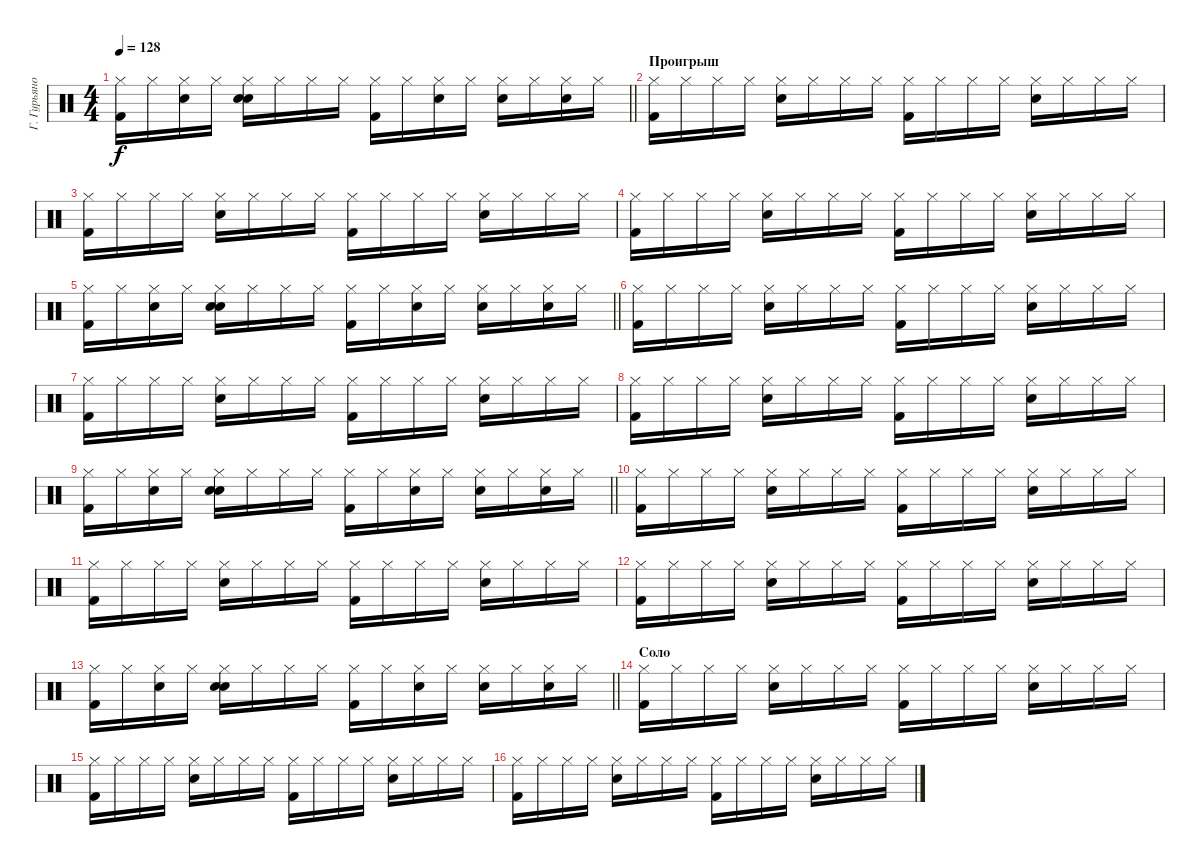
\track ("Г. Гурьянов" "Г. Гурьяно") {instrument percussion}
\staff
\articulation defaults
\ts (4 4)
\tempo 128
\clef neutral
\barLineRight lightlight
\ks c
("Hi-Hat (closed)" "Kick (hit) 2").16{dy f} "Hi-Hat (closed)".16 ("Hi-Hat (closed)" "Hand Clap (hit)").16 "Hi-Hat (closed)".16 ("Hi-Hat (closed)" "Snare (hit) 2" "Hand Clap (hit)").16 "Hi-Hat (closed)".16 "Hi-Hat (closed)".16 "Hi-Hat (closed)".16 ("Hi-Hat (closed)" "Kick (hit) 2").16 "Hi-Hat (closed)".16 ("Hi-Hat (closed)" "Snare (hit) 2").16 "Hi-Hat (closed)".16 ("Hi-Hat (closed)" "Snare (hit) 2").16 "Hi-Hat (closed)".16 ("Hi-Hat (closed)" "Snare (hit) 2").16 "Hi-Hat (closed)".16 |
\section ("" "Проигрыш")
("Hi-Hat (closed)" "Kick (hit) 2").16 "Hi-Hat (closed)".16 "Hi-Hat (closed)".16 "Hi-Hat (closed)".16 ("Hi-Hat (closed)" "Snare (hit) 2").16 "Hi-Hat (closed)".16 "Hi-Hat (closed)".16 "Hi-Hat (closed)".16 ("Hi-Hat (closed)" "Kick (hit) 2").16 "Hi-Hat (closed)".16 "Hi-Hat (closed)".16 "Hi-Hat (closed)".16 ("Hi-Hat (closed)" "Snare (hit) 2").16 "Hi-Hat (closed)".16 "Hi-Hat (closed)".16 "Hi-Hat (closed)".16 |
("Hi-Hat (closed)" "Kick (hit) 2").16 "Hi-Hat (closed)".16 "Hi-Hat (closed)".16 "Hi-Hat (closed)".16 ("Hi-Hat (closed)" "Snare (hit) 2").16 "Hi-Hat (closed)".16 "Hi-Hat (closed)".16 "Hi-Hat (closed)".16 ("Hi-Hat (closed)" "Kick (hit) 2").16 "Hi-Hat (closed)".16 "Hi-Hat (closed)".16 "Hi-Hat (closed)".16 ("Hi-Hat (closed)" "Snare (hit) 2").16 "Hi-Hat (closed)".16 "Hi-Hat (closed)".16 "Hi-Hat (closed)".16 |
("Hi-Hat (closed)" "Kick (hit) 2").16 "Hi-Hat (closed)".16 "Hi-Hat (closed)".16 "Hi-Hat (closed)".16 ("Hi-Hat (closed)" "Snare (hit) 2").16 "Hi-Hat (closed)".16 "Hi-Hat (closed)".16 "Hi-Hat (closed)".16 ("Hi-Hat (closed)" "Kick (hit) 2").16 "Hi-Hat (closed)".16 "Hi-Hat (closed)".16 "Hi-Hat (closed)".16 ("Hi-Hat (closed)" "Snare (hit) 2").16 "Hi-Hat (closed)".16 "Hi-Hat (closed)".16 "Hi-Hat (closed)".16 |
\barLineRight lightlight
("Hi-Hat (closed)" "Kick (hit) 2").16 "Hi-Hat (closed)".16 ("Hi-Hat (closed)" "Hand Clap (hit)").16 "Hi-Hat (closed)".16 ("Hi-Hat (closed)" "Snare (hit) 2" "Hand Clap (hit)").16 "Hi-Hat (closed)".16 "Hi-Hat (closed)".16 "Hi-Hat (closed)".16 ("Hi-Hat (closed)" "Kick (hit) 2").16 "Hi-Hat (closed)".16 ("Hi-Hat (closed)" "Snare (hit) 2").16 "Hi-Hat (closed)".16 ("Hi-Hat (closed)" "Snare (hit) 2").16 "Hi-Hat (closed)".16 ("Hi-Hat (closed)" "Snare (hit) 2").16 "Hi-Hat (closed)".16 |
("Hi-Hat (closed)" "Kick (hit) 2").16 "Hi-Hat (closed)".16 "Hi-Hat (closed)".16 "Hi-Hat (closed)".16 ("Hi-Hat (closed)" "Snare (hit) 2").16 "Hi-Hat (closed)".16 "Hi-Hat (closed)".16 "Hi-Hat (closed)".16 ("Hi-Hat (closed)" "Kick (hit) 2").16 "Hi-Hat (closed)".16 "Hi-Hat (closed)".16 "Hi-Hat (closed)".16 ("Hi-Hat (closed)" "Snare (hit) 2").16 "Hi-Hat (closed)".16 "Hi-Hat (closed)".16 "Hi-Hat (closed)".16 |
("Hi-Hat (closed)" "Kick (hit) 2").16 "Hi-Hat (closed)".16 "Hi-Hat (closed)".16 "Hi-Hat (closed)".16 ("Hi-Hat (closed)" "Snare (hit) 2").16 "Hi-Hat (closed)".16 "Hi-Hat (closed)".16 "Hi-Hat (closed)".16 ("Hi-Hat (closed)" "Kick (hit) 2").16 "Hi-Hat (closed)".16 "Hi-Hat (closed)".16 "Hi-Hat (closed)".16 ("Hi-Hat (closed)" "Snare (hit) 2").16 "Hi-Hat (closed)".16 "Hi-Hat (closed)".16 "Hi-Hat (closed)".16 |
("Hi-Hat (closed)" "Kick (hit) 2").16 "Hi-Hat (closed)".16 "Hi-Hat (closed)".16 "Hi-Hat (closed)".16 ("Hi-Hat (closed)" "Snare (hit) 2").16 "Hi-Hat (closed)".16 "Hi-Hat (closed)".16 "Hi-Hat (closed)".16 ("Hi-Hat (closed)" "Kick (hit) 2").16 "Hi-Hat (closed)".16 "Hi-Hat (closed)".16 "Hi-Hat (closed)".16 ("Hi-Hat (closed)" "Snare (hit) 2").16 "Hi-Hat (closed)".16 "Hi-Hat (closed)".16 "Hi-Hat (closed)".16 |
\barLineRight lightlight
("Hi-Hat (closed)" "Kick (hit) 2").16 "Hi-Hat (closed)".16 ("Hi-Hat (closed)" "Hand Clap (hit)").16 "Hi-Hat (closed)".16 ("Hi-Hat (closed)" "Snare (hit) 2" "Hand Clap (hit)").16 "Hi-Hat (closed)".16 "Hi-Hat (closed)".16 "Hi-Hat (closed)".16 ("Hi-Hat (closed)" "Kick (hit) 2").16 "Hi-Hat (closed)".16 ("Hi-Hat (closed)" "Snare (hit) 2").16 "Hi-Hat (closed)".16 ("Hi-Hat (closed)" "Snare (hit) 2").16 "Hi-Hat (closed)".16 ("Hi-Hat (closed)" "Snare (hit) 2").16 "Hi-Hat (closed)".16 |
("Hi-Hat (closed)" "Kick (hit) 2").16 "Hi-Hat (closed)".16 "Hi-Hat (closed)".16 "Hi-Hat (closed)".16 ("Hi-Hat (closed)" "Snare (hit) 2").16 "Hi-Hat (closed)".16 "Hi-Hat (closed)".16 "Hi-Hat (closed)".16 ("Hi-Hat (closed)" "Kick (hit) 2").16 "Hi-Hat (closed)".16 "Hi-Hat (closed)".16 "Hi-Hat (closed)".16 ("Hi-Hat (closed)" "Snare (hit) 2").16 "Hi-Hat (closed)".16 "Hi-Hat (closed)".16 "Hi-Hat (closed)".16 |
("Hi-Hat (closed)" "Kick (hit) 2").16 "Hi-Hat (closed)".16 "Hi-Hat (closed)".16 "Hi-Hat (closed)".16 ("Hi-Hat (closed)" "Snare (hit) 2").16 "Hi-Hat (closed)".16 "Hi-Hat (closed)".16 "Hi-Hat (closed)".16 ("Hi-Hat (closed)" "Kick (hit) 2").16 "Hi-Hat (closed)".16 "Hi-Hat (closed)".16 "Hi-Hat (closed)".16 ("Hi-Hat (closed)" "Snare (hit) 2").16 "Hi-Hat (closed)".16 "Hi-Hat (closed)".16 "Hi-Hat (closed)".16 |
("Hi-Hat (closed)" "Kick (hit) 2").16 "Hi-Hat (closed)".16 "Hi-Hat (closed)".16 "Hi-Hat (closed)".16 ("Hi-Hat (closed)" "Snare (hit) 2").16 "Hi-Hat (closed)".16 "Hi-Hat (closed)".16 "Hi-Hat (closed)".16 ("Hi-Hat (closed)" "Kick (hit) 2").16 "Hi-Hat (closed)".16 "Hi-Hat (closed)".16 "Hi-Hat (closed)".16 ("Hi-Hat (closed)" "Snare (hit) 2").16 "Hi-Hat (closed)".16 "Hi-Hat (closed)".16 "Hi-Hat (closed)".16 |
\barLineRight lightlight
("Hi-Hat (closed)" "Kick (hit) 2").16 "Hi-Hat (closed)".16 ("Hi-Hat (closed)" "Hand Clap (hit)").16 "Hi-Hat (closed)".16 ("Hi-Hat (closed)" "Snare (hit) 2" "Hand Clap (hit)").16 "Hi-Hat (closed)".16 "Hi-Hat (closed)".16 "Hi-Hat (closed)".16 ("Hi-Hat (closed)" "Kick (hit) 2").16 "Hi-Hat (closed)".16 ("Hi-Hat (closed)" "Snare (hit) 2").16 "Hi-Hat (closed)".16 ("Hi-Hat (closed)" "Snare (hit) 2").16 "Hi-Hat (closed)".16 ("Hi-Hat (closed)" "Snare (hit) 2").16 "Hi-Hat (closed)".16 |
\section ("" "Соло")
("Hi-Hat (closed)" "Kick (hit) 2").16 "Hi-Hat (closed)".16 "Hi-Hat (closed)".16 "Hi-Hat (closed)".16 ("Hi-Hat (closed)" "Snare (hit) 2").16 "Hi-Hat (closed)".16 "Hi-Hat (closed)".16 "Hi-Hat (closed)".16 ("Hi-Hat (closed)" "Kick (hit) 2").16 "Hi-Hat (closed)".16 "Hi-Hat (closed)".16 "Hi-Hat (closed)".16 ("Hi-Hat (closed)" "Snare (hit) 2").16 "Hi-Hat (closed)".16 "Hi-Hat (closed)".16 "Hi-Hat (closed)".16 |
("Hi-Hat (closed)" "Kick (hit) 2").16 "Hi-Hat (closed)".16 "Hi-Hat (closed)".16 "Hi-Hat (closed)".16 ("Hi-Hat (closed)" "Snare (hit) 2").16 "Hi-Hat (closed)".16 "Hi-Hat (closed)".16 "Hi-Hat (closed)".16 ("Hi-Hat (closed)" "Kick (hit) 2").16 "Hi-Hat (closed)".16 "Hi-Hat (closed)".16 "Hi-Hat (closed)".16 ("Hi-Hat (closed)" "Snare (hit) 2").16 "Hi-Hat (closed)".16 "Hi-Hat (closed)".16 "Hi-Hat (closed)".16 |
("Hi-Hat (closed)" "Kick (hit) 2").16 "Hi-Hat (closed)".16 "Hi-Hat (closed)".16 "Hi-Hat (closed)".16 ("Hi-Hat (closed)" "Snare (hit) 2").16 "Hi-Hat (closed)".16 "Hi-Hat (closed)".16 "Hi-Hat (closed)".16 ("Hi-Hat (closed)" "Kick (hit) 2").16 "Hi-Hat (closed)".16 "Hi-Hat (closed)".16 "Hi-Hat (closed)".16 ("Hi-Hat (closed)" "Snare (hit) 2").16 "Hi-Hat (closed)".16 "Hi-Hat (closed)".16 "Hi-Hat (closed)".16
